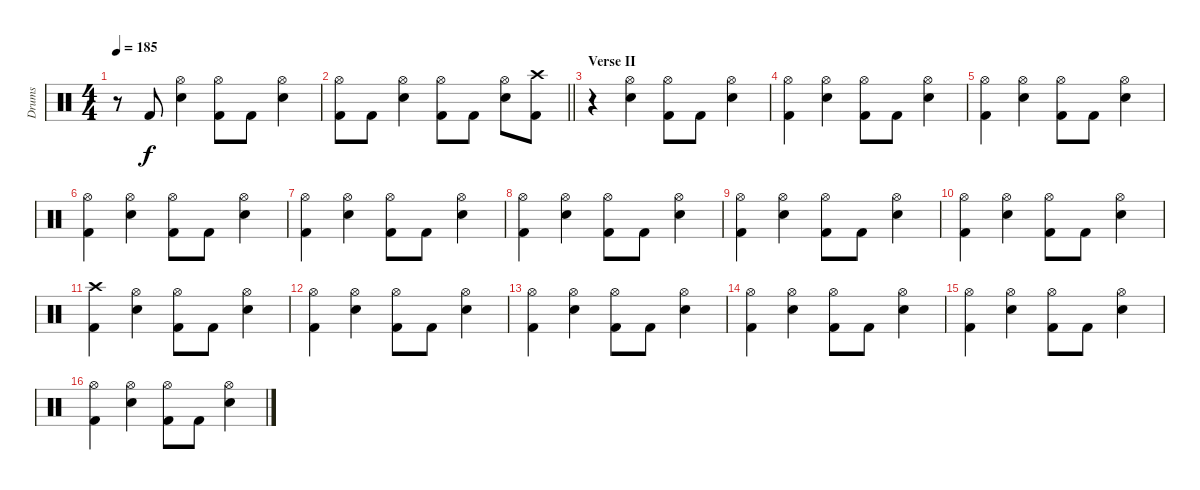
\track ("Drums" "Drums") {instrument percussion}
\staff {score}
\articulation defaults
\ts (4 4)
\tempo 185
\clef neutral
\ks c
r.8{dy f} "Kick (hit) 2".8 ("Hi-Hat (open)" "Snare (hit) 2").4 ("Hi-Hat (open)" "Kick (hit) 2").8 "Kick (hit) 2".8 ("Hi-Hat (open)" "Snare (hit) 2").4 |
\barLineRight lightlight
("Hi-Hat (open)" "Kick (hit) 2").8 "Kick (hit) 2".8 ("Hi-Hat (open)" "Snare (hit) 2").4 ("Hi-Hat (open)" "Kick (hit) 2").8 "Kick (hit) 2".8 ("Hi-Hat (open)" "Snare (hit) 2").8 ("Crash high (hit)" "Kick (hit) 2").8 |
\section ("" "Verse II")
r.4 ("Hi-Hat (open)" "Snare (hit) 2").4 ("Hi-Hat (open)" "Kick (hit) 2").8 "Kick (hit) 2".8 ("Hi-Hat (open)" "Snare (hit) 2").4 |
("Hi-Hat (open)" "Kick (hit) 2").4 ("Hi-Hat (open)" "Snare (hit) 2").4 ("Hi-Hat (open)" "Kick (hit) 2").8 "Kick (hit) 2".8 ("Hi-Hat (open)" "Snare (hit) 2").4 |
("Hi-Hat (open)" "Kick (hit) 2").4 ("Hi-Hat (open)" "Snare (hit) 2").4 ("Hi-Hat (open)" "Kick (hit) 2").8 "Kick (hit) 2".8 ("Hi-Hat (open)" "Snare (hit) 2").4 |
("Hi-Hat (open)" "Kick (hit) 2").4 ("Hi-Hat (open)" "Snare (hit) 2").4 ("Hi-Hat (open)" "Kick (hit) 2").8 "Kick (hit) 2".8 ("Hi-Hat (open)" "Snare (hit) 2").4 |
("Hi-Hat (open)" "Kick (hit) 2").4 ("Hi-Hat (open)" "Snare (hit) 2").4 ("Hi-Hat (open)" "Kick (hit) 2").8 "Kick (hit) 2".8 ("Hi-Hat (open)" "Snare (hit) 2").4 |
("Hi-Hat (open)" "Kick (hit) 2").4 ("Hi-Hat (open)" "Snare (hit) 2").4 ("Hi-Hat (open)" "Kick (hit) 2").8 "Kick (hit) 2".8 ("Hi-Hat (open)" "Snare (hit) 2").4 |
("Hi-Hat (open)" "Kick (hit) 2").4 ("Hi-Hat (open)" "Snare (hit) 2").4 ("Hi-Hat (open)" "Kick (hit) 2").8 "Kick (hit) 2".8 ("Hi-Hat (open)" "Snare (hit) 2").4 |
("Hi-Hat (open)" "Kick (hit) 2").4 ("Hi-Hat (open)" "Snare (hit) 2").4 ("Hi-Hat (open)" "Kick (hit) 2").8 "Kick (hit) 2".8 ("Hi-Hat (open)" "Snare (hit) 2").4 |
("Crash high (hit)" "Kick (hit) 2").4 ("Hi-Hat (open)" "Snare (hit) 2").4 ("Hi-Hat (open)" "Kick (hit) 2").8 "Kick (hit) 2".8 ("Hi-Hat (open)" "Snare (hit) 2").4 |
("Hi-Hat (open)" "Kick (hit) 2").4 ("Hi-Hat (open)" "Snare (hit) 2").4 ("Hi-Hat (open)" "Kick (hit) 2").8 "Kick (hit) 2".8 ("Hi-Hat (open)" "Snare (hit) 2").4 |
("Hi-Hat (open)" "Kick (hit) 2").4 ("Hi-Hat (open)" "Snare (hit) 2").4 ("Hi-Hat (open)" "Kick (hit) 2").8 "Kick (hit) 2".8 ("Hi-Hat (open)" "Snare (hit) 2").4 |
("Hi-Hat (open)" "Kick (hit) 2").4 ("Hi-Hat (open)" "Snare (hit) 2").4 ("Hi-Hat (open)" "Kick (hit) 2").8 "Kick (hit) 2".8 ("Hi-Hat (open)" "Snare (hit) 2").4 |
("Hi-Hat (open)" "Kick (hit) 2").4 ("Hi-Hat (open)" "Snare (hit) 2").4 ("Hi-Hat (open)" "Kick (hit) 2").8 "Kick (hit) 2".8 ("Hi-Hat (open)" "Snare (hit) 2").4 |
("Hi-Hat (open)" "Kick (hit) 2").4 ("Hi-Hat (open)" "Snare (hit) 2").4 ("Hi-Hat (open)" "Kick (hit) 2").8 "Kick (hit) 2".8 ("Hi-Hat (open)" "Snare (hit) 2").4
